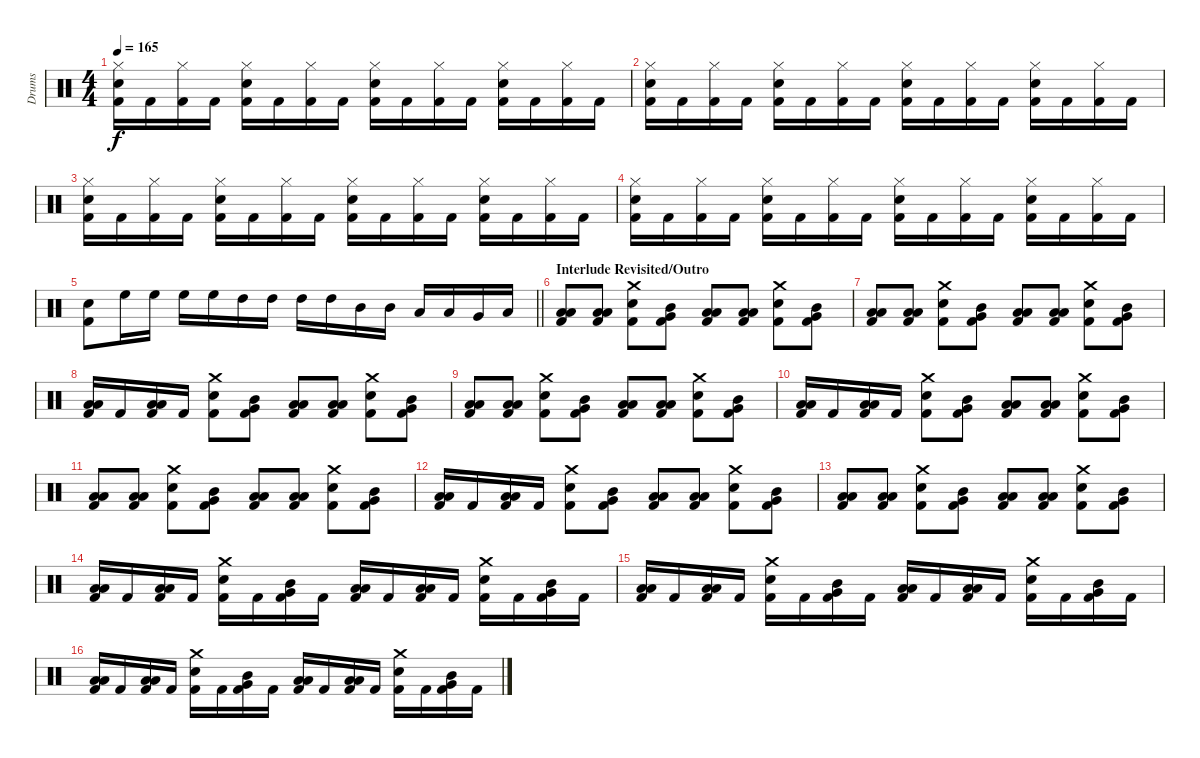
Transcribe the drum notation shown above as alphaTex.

\track ("Drums" "Drums") {instrument percussion}
\staff {score}
\articulation defaults
\ts (4 4)
\tempo 165
\clef neutral
\ks c
("Hi-Hat (closed)" "Snare (hit) 2" "Kick (hit) 2").16{dy f} "Kick (hit) 2".16 ("Hi-Hat (closed)" "Kick (hit) 2").16 "Kick (hit) 2".16 ("Hi-Hat (closed)" "Snare (hit) 2" "Kick (hit) 2").16 "Kick (hit) 2".16 ("Hi-Hat (closed)" "Kick (hit) 2").16 "Kick (hit) 2".16 ("Hi-Hat (closed)" "Snare (hit) 2" "Kick (hit) 2").16 "Kick (hit) 2".16 ("Hi-Hat (closed)" "Kick (hit) 2").16 "Kick (hit) 2".16 ("Hi-Hat (closed)" "Snare (hit) 2" "Kick (hit) 2").16 "Kick (hit) 2".16 ("Hi-Hat (closed)" "Kick (hit) 2").16 "Kick (hit) 2".16 |
("Hi-Hat (closed)" "Snare (hit) 2" "Kick (hit) 2").16 "Kick (hit) 2".16 ("Hi-Hat (closed)" "Kick (hit) 2").16 "Kick (hit) 2".16 ("Hi-Hat (closed)" "Snare (hit) 2" "Kick (hit) 2").16 "Kick (hit) 2".16 ("Hi-Hat (closed)" "Kick (hit) 2").16 "Kick (hit) 2".16 ("Hi-Hat (closed)" "Snare (hit) 2" "Kick (hit) 2").16 "Kick (hit) 2".16 ("Hi-Hat (closed)" "Kick (hit) 2").16 "Kick (hit) 2".16 ("Hi-Hat (closed)" "Snare (hit) 2" "Kick (hit) 2").16 "Kick (hit) 2".16 ("Hi-Hat (closed)" "Kick (hit) 2").16 "Kick (hit) 2".16 |
("Hi-Hat (closed)" "Snare (hit) 2" "Kick (hit) 2").16 "Kick (hit) 2".16 ("Hi-Hat (closed)" "Kick (hit) 2").16 "Kick (hit) 2".16 ("Hi-Hat (closed)" "Snare (hit) 2" "Kick (hit) 2").16 "Kick (hit) 2".16 ("Hi-Hat (closed)" "Kick (hit) 2").16 "Kick (hit) 2".16 ("Hi-Hat (closed)" "Snare (hit) 2" "Kick (hit) 2").16 "Kick (hit) 2".16 ("Hi-Hat (closed)" "Kick (hit) 2").16 "Kick (hit) 2".16 ("Hi-Hat (closed)" "Snare (hit) 2" "Kick (hit) 2").16 "Kick (hit) 2".16 ("Hi-Hat (closed)" "Kick (hit) 2").16 "Kick (hit) 2".16 |
("Hi-Hat (closed)" "Snare (hit) 2" "Kick (hit) 2").16 "Kick (hit) 2".16 ("Hi-Hat (closed)" "Kick (hit) 2").16 "Kick (hit) 2".16 ("Hi-Hat (closed)" "Snare (hit) 2" "Kick (hit) 2").16 "Kick (hit) 2".16 ("Hi-Hat (closed)" "Kick (hit) 2").16 "Kick (hit) 2".16 ("Hi-Hat (closed)" "Snare (hit) 2" "Kick (hit) 2").16 "Kick (hit) 2".16 ("Hi-Hat (closed)" "Kick (hit) 2").16 "Kick (hit) 2".16 ("Hi-Hat (closed)" "Snare (hit) 2" "Kick (hit) 2").16 "Kick (hit) 2".16 ("Hi-Hat (closed)" "Kick (hit) 2").16 "Kick (hit) 2".16 |
\barLineRight lightlight
("Snare (hit) 2" "Kick (hit) 2").8 "High Floor Tom (hit)".16 "High Floor Tom (hit)".16 "High Floor Tom (hit)".16 "High Floor Tom (hit)".16 "High Tom (hit)".16 "High Tom (hit)".16 "High Tom (hit)".16 "High Tom (hit)".16 "Mid Tom (hit)".16 "Mid Tom (hit)".16 "Low Tom (hit)".16 "Low Tom (hit)".16 "Very Low Tom (hit)".16 "Low Floor Tom (hit)".16 |
\section ("" "Interlude Revisited/Outro")
("Low Tom (hit)" "Low Floor Tom (hit)" "Kick (hit) 2").8 ("Low Tom (hit)" "Low Floor Tom (hit)" "Kick (hit) 2").8 ("Crash medium (hit)" "Snare (hit) 2" "Kick (hit) 2").8 ("Mid Tom (hit)" "Very Low Tom (hit)" "Kick (hit) 2").8 ("Low Tom (hit)" "Low Floor Tom (hit)" "Kick (hit) 2").8 ("Low Tom (hit)" "Low Floor Tom (hit)" "Kick (hit) 2").8 ("Crash medium (hit)" "Snare (hit) 2" "Kick (hit) 2").8 ("Mid Tom (hit)" "Very Low Tom (hit)" "Kick (hit) 2").8 |
("Low Tom (hit)" "Low Floor Tom (hit)" "Kick (hit) 2").8 ("Low Tom (hit)" "Low Floor Tom (hit)" "Kick (hit) 2").8 ("Crash medium (hit)" "Snare (hit) 2" "Kick (hit) 2").8 ("Mid Tom (hit)" "Very Low Tom (hit)" "Kick (hit) 2").8 ("Low Tom (hit)" "Low Floor Tom (hit)" "Kick (hit) 2").8 ("Low Tom (hit)" "Low Floor Tom (hit)" "Kick (hit) 2").8 ("Crash medium (hit)" "Snare (hit) 2" "Kick (hit) 2").8 ("Mid Tom (hit)" "Very Low Tom (hit)" "Kick (hit) 2").8 |
("Low Tom (hit)" "Low Floor Tom (hit)" "Kick (hit) 2").16 "Kick (hit) 2".16 ("Low Tom (hit)" "Low Floor Tom (hit)" "Kick (hit) 2").16 "Kick (hit) 2".16 ("Crash medium (hit)" "Snare (hit) 2" "Kick (hit) 2").8 ("Mid Tom (hit)" "Very Low Tom (hit)" "Kick (hit) 2").8 ("Low Tom (hit)" "Low Floor Tom (hit)" "Kick (hit) 2").8 ("Low Tom (hit)" "Low Floor Tom (hit)" "Kick (hit) 2").8 ("Crash medium (hit)" "Snare (hit) 2" "Kick (hit) 2").8 ("Mid Tom (hit)" "Very Low Tom (hit)" "Kick (hit) 2").8 |
("Low Tom (hit)" "Low Floor Tom (hit)" "Kick (hit) 2").8 ("Low Tom (hit)" "Low Floor Tom (hit)" "Kick (hit) 2").8 ("Crash medium (hit)" "Snare (hit) 2" "Kick (hit) 2").8 ("Mid Tom (hit)" "Very Low Tom (hit)" "Kick (hit) 2").8 ("Low Tom (hit)" "Low Floor Tom (hit)" "Kick (hit) 2").8 ("Low Tom (hit)" "Low Floor Tom (hit)" "Kick (hit) 2").8 ("Crash medium (hit)" "Snare (hit) 2" "Kick (hit) 2").8 ("Mid Tom (hit)" "Very Low Tom (hit)" "Kick (hit) 2").8 |
("Low Tom (hit)" "Low Floor Tom (hit)" "Kick (hit) 2").16 "Kick (hit) 2".16 ("Low Tom (hit)" "Low Floor Tom (hit)" "Kick (hit) 2").16 "Kick (hit) 2".16 ("Crash medium (hit)" "Snare (hit) 2" "Kick (hit) 2").8 ("Mid Tom (hit)" "Very Low Tom (hit)" "Kick (hit) 2").8 ("Low Tom (hit)" "Low Floor Tom (hit)" "Kick (hit) 2").8 ("Low Tom (hit)" "Low Floor Tom (hit)" "Kick (hit) 2").8 ("Crash medium (hit)" "Snare (hit) 2" "Kick (hit) 2").8 ("Mid Tom (hit)" "Very Low Tom (hit)" "Kick (hit) 2").8 |
("Low Tom (hit)" "Low Floor Tom (hit)" "Kick (hit) 2").8 ("Low Tom (hit)" "Low Floor Tom (hit)" "Kick (hit) 2").8 ("Crash medium (hit)" "Snare (hit) 2" "Kick (hit) 2").8 ("Mid Tom (hit)" "Very Low Tom (hit)" "Kick (hit) 2").8 ("Low Tom (hit)" "Low Floor Tom (hit)" "Kick (hit) 2").8 ("Low Tom (hit)" "Low Floor Tom (hit)" "Kick (hit) 2").8 ("Crash medium (hit)" "Snare (hit) 2" "Kick (hit) 2").8 ("Mid Tom (hit)" "Very Low Tom (hit)" "Kick (hit) 2").8 |
("Low Tom (hit)" "Low Floor Tom (hit)" "Kick (hit) 2").16 "Kick (hit) 2".16 ("Low Tom (hit)" "Low Floor Tom (hit)" "Kick (hit) 2").16 "Kick (hit) 2".16 ("Crash medium (hit)" "Snare (hit) 2" "Kick (hit) 2").8 ("Mid Tom (hit)" "Very Low Tom (hit)" "Kick (hit) 2").8 ("Low Tom (hit)" "Low Floor Tom (hit)" "Kick (hit) 2").8 ("Low Tom (hit)" "Low Floor Tom (hit)" "Kick (hit) 2").8 ("Crash medium (hit)" "Snare (hit) 2" "Kick (hit) 2").8 ("Mid Tom (hit)" "Very Low Tom (hit)" "Kick (hit) 2").8 |
("Low Tom (hit)" "Low Floor Tom (hit)" "Kick (hit) 2").8 ("Low Tom (hit)" "Low Floor Tom (hit)" "Kick (hit) 2").8 ("Crash medium (hit)" "Snare (hit) 2" "Kick (hit) 2").8 ("Mid Tom (hit)" "Very Low Tom (hit)" "Kick (hit) 2").8 ("Low Tom (hit)" "Low Floor Tom (hit)" "Kick (hit) 2").8 ("Low Tom (hit)" "Low Floor Tom (hit)" "Kick (hit) 2").8 ("Crash medium (hit)" "Snare (hit) 2" "Kick (hit) 2").8 ("Mid Tom (hit)" "Very Low Tom (hit)" "Kick (hit) 2").8 |
("Low Tom (hit)" "Low Floor Tom (hit)" "Kick (hit) 2").16 "Kick (hit) 2".16 ("Low Tom (hit)" "Low Floor Tom (hit)" "Kick (hit) 2").16 "Kick (hit) 2".16 ("Crash medium (hit)" "Snare (hit) 2" "Kick (hit) 2").16 "Kick (hit) 2".16 ("Mid Tom (hit)" "Very Low Tom (hit)" "Kick (hit) 2").16 "Kick (hit) 2".16 ("Low Tom (hit)" "Low Floor Tom (hit)" "Kick (hit) 2").16 "Kick (hit) 2".16 ("Low Tom (hit)" "Low Floor Tom (hit)" "Kick (hit) 2").16 "Kick (hit) 2".16 ("Crash medium (hit)" "Snare (hit) 2" "Kick (hit) 2").16 "Kick (hit) 2".16 ("Mid Tom (hit)" "Very Low Tom (hit)" "Kick (hit) 2").16 "Kick (hit) 2".16 |
("Low Tom (hit)" "Low Floor Tom (hit)" "Kick (hit) 2").16 "Kick (hit) 2".16 ("Low Tom (hit)" "Low Floor Tom (hit)" "Kick (hit) 2").16 "Kick (hit) 2".16 ("Crash medium (hit)" "Snare (hit) 2" "Kick (hit) 2").16 "Kick (hit) 2".16 ("Mid Tom (hit)" "Very Low Tom (hit)" "Kick (hit) 2").16 "Kick (hit) 2".16 ("Low Tom (hit)" "Low Floor Tom (hit)" "Kick (hit) 2").16 "Kick (hit) 2".16 ("Low Tom (hit)" "Low Floor Tom (hit)" "Kick (hit) 2").16 "Kick (hit) 2".16 ("Crash medium (hit)" "Snare (hit) 2" "Kick (hit) 2").16 "Kick (hit) 2".16 ("Mid Tom (hit)" "Very Low Tom (hit)" "Kick (hit) 2").16 "Kick (hit) 2".16 |
("Low Tom (hit)" "Low Floor Tom (hit)" "Kick (hit) 2").16 "Kick (hit) 2".16 ("Low Tom (hit)" "Low Floor Tom (hit)" "Kick (hit) 2").16 "Kick (hit) 2".16 ("Crash medium (hit)" "Snare (hit) 2" "Kick (hit) 2").16 "Kick (hit) 2".16 ("Mid Tom (hit)" "Very Low Tom (hit)" "Kick (hit) 2").16 "Kick (hit) 2".16 ("Low Tom (hit)" "Low Floor Tom (hit)" "Kick (hit) 2").16 "Kick (hit) 2".16 ("Low Tom (hit)" "Low Floor Tom (hit)" "Kick (hit) 2").16 "Kick (hit) 2".16 ("Crash medium (hit)" "Snare (hit) 2" "Kick (hit) 2").16 "Kick (hit) 2".16 ("Mid Tom (hit)" "Very Low Tom (hit)" "Kick (hit) 2").16 "Kick (hit) 2".16
